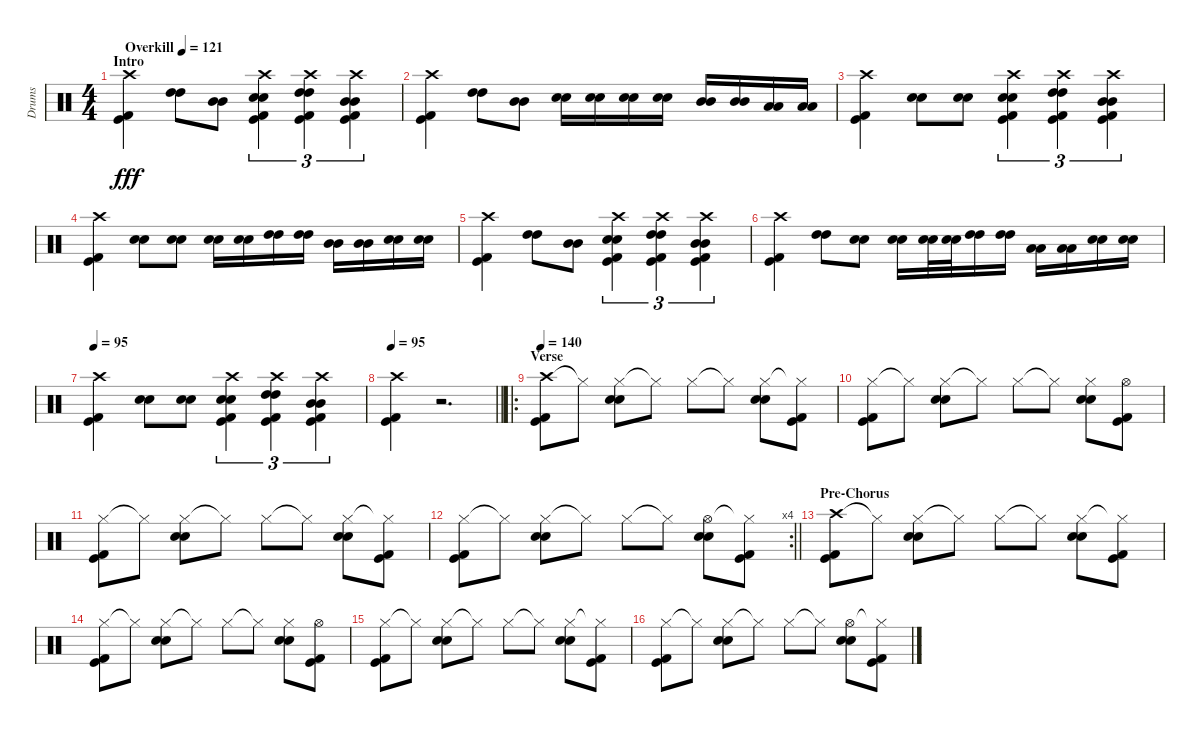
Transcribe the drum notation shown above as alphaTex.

\track ("Drums" "Drums") {instrument percussion}
\staff {score}
\articulation defaults
\ts (4 4)
\section ("" "Intro")
\tempo (121 "Overkill")
\clef neutral
\ks c
("Crash high (hit)" "Kick (hit)" "Kick (hit) 2").4{dy fff} ("High Tom (hit)" "High Tom (hit)").8 ("Mid Tom (hit)" "Mid Tom (hit)").8 ("Crash high (hit)" "Electric Snare (hit)" "Electric Snare (hit)" "Kick (hit)" "Kick (hit) 2").4{tu (3 2)} ("Crash high (hit)" "High Tom (hit)" "High Tom (hit)" "Kick (hit)" "Kick (hit) 2").4{tu (3 2)} ("Crash high (hit)" "Mid Tom (hit)" "Mid Tom (hit)" "Kick (hit)" "Kick (hit) 2").4{tu (3 2)} |
("Crash high (hit)" "Kick (hit)" "Kick (hit) 2").4 ("High Tom (hit)" "High Tom (hit)").8 ("Mid Tom (hit)" "Mid Tom (hit)").8 ("Electric Snare (hit)" "Electric Snare (hit)").16 ("Electric Snare (hit)" "Electric Snare (hit)").16 ("Electric Snare (hit)" "Electric Snare (hit)").16 ("Electric Snare (hit)" "Electric Snare (hit)").16 ("Mid Tom (hit)" "Mid Tom (hit)").16 ("Mid Tom (hit)" "Mid Tom (hit)").16 ("Low Tom (hit)" "Low Tom (hit)").16 ("Low Tom (hit)" "Low Tom (hit)").16 |
("Crash high (hit)" "Kick (hit)" "Kick (hit) 2").4 ("Electric Snare (hit)" "Electric Snare (hit)").8{bd 480} ("Electric Snare (hit)" "Electric Snare (hit)").8{bu 480} ("Crash high (hit)" "Electric Snare (hit)" "Electric Snare (hit)" "Kick (hit)" "Kick (hit) 2").4{tu (3 2)} ("Crash high (hit)" "High Tom (hit)" "High Tom (hit)" "Kick (hit)" "Kick (hit) 2").4{tu (3 2)} ("Crash high (hit)" "Mid Tom (hit)" "Mid Tom (hit)" "Kick (hit)" "Kick (hit) 2").4{tu (3 2)} |
("Crash high (hit)" "Kick (hit)" "Kick (hit) 2").4 ("Electric Snare (hit)" "Electric Snare (hit)").8 ("Electric Snare (hit)" "Electric Snare (hit)").8 ("Electric Snare (hit)" "Electric Snare (hit)").16 ("Electric Snare (hit)" "Electric Snare (hit)").16 ("High Tom (hit)" "High Tom (hit)").16 ("High Tom (hit)" "High Tom (hit)").16 ("Mid Tom (hit)" "Mid Tom (hit)").16 ("Mid Tom (hit)" "Mid Tom (hit)").16 ("Electric Snare (hit)" "Electric Snare (hit)").16 ("Electric Snare (hit)" "Electric Snare (hit)").16 |
("Crash high (hit)" "Kick (hit)" "Kick (hit) 2").4 ("High Tom (hit)" "High Tom (hit)").8{bd 480} ("Mid Tom (hit)" "Mid Tom (hit)").8{bu 480} ("Crash high (hit)" "Electric Snare (hit)" "Electric Snare (hit)" "Kick (hit)" "Kick (hit) 2").4{tu (3 2)} ("Crash high (hit)" "High Tom (hit)" "High Tom (hit)" "Kick (hit)" "Kick (hit) 2").4{tu (3 2)} ("Crash high (hit)" "Mid Tom (hit)" "Mid Tom (hit)" "Kick (hit)" "Kick (hit) 2").4{tu (3 2)} |
("Crash high (hit)" "Kick (hit)" "Kick (hit) 2").4 ("High Tom (hit)" "High Tom (hit)").8 ("Electric Snare (hit)" "Electric Snare (hit)").8 ("Electric Snare (hit)" "Electric Snare (hit)").16 ("Electric Snare (hit)" "Electric Snare (hit)").32 ("Electric Snare (hit)" "Electric Snare (hit)").32 ("High Tom (hit)" "High Tom (hit)").16 ("High Tom (hit)" "High Tom (hit)").16 ("Low Tom (hit)" "Low Tom (hit)").16 ("Low Tom (hit)" "Low Tom (hit)").16 ("Electric Snare (hit)" "Electric Snare (hit)").16 ("Electric Snare (hit)" "Electric Snare (hit)").16 |
\tempo 95
("Crash high (hit)" "Kick (hit)" "Kick (hit) 2").4 ("Electric Snare (hit)" "Electric Snare (hit)").8{bd 480} ("Electric Snare (hit)" "Electric Snare (hit)").8{bu 480} ("Crash high (hit)" "Electric Snare (hit)" "Electric Snare (hit)" "Kick (hit)" "Kick (hit) 2").4{tu (3 2)} ("Crash high (hit)" "High Tom (hit)" "High Tom (hit)" "Kick (hit)" "Kick (hit) 2").4{tu (3 2)} ("Crash high (hit)" "Mid Tom (hit)" "Mid Tom (hit)" "Kick (hit)" "Kick (hit) 2").4{tu (3 2)} |
\tempo 95
\barLineRight lightlight
("Crash high (hit)" "Kick (hit)" "Kick (hit) 2").4 r.2{d} |
\ro
\section ("" "Verse")
\tempo 140
("Crash high (hit)" "Kick (hit)" "Kick (hit) 2").8 "Hi-Hat (closed)"{t}.8 ("Hi-Hat (closed)" "Electric Snare (hit)" "Electric Snare (hit)").8 "Hi-Hat (closed)"{t}.8 "Hi-Hat (closed)".8 "Hi-Hat (closed)"{t}.8 ("Hi-Hat (closed)" "Electric Snare (hit)" "Electric Snare (hit)").8 ("Hi-Hat (closed)"{t} "Kick (hit)" "Kick (hit) 2").8 |
("Hi-Hat (closed)" "Kick (hit)" "Kick (hit) 2").8 "Hi-Hat (closed)"{t}.8 ("Hi-Hat (closed)" "Electric Snare (hit)" "Electric Snare (hit)").8 "Hi-Hat (closed)"{t}.8 "Hi-Hat (closed)".8 "Hi-Hat (closed)"{t}.8 ("Hi-Hat (closed)" "Electric Snare (hit)" "Electric Snare (hit)").8 ("Hi-Hat (open)" "Kick (hit)" "Kick (hit) 2").8 |
("Hi-Hat (closed)" "Kick (hit)" "Kick (hit) 2").8 "Hi-Hat (closed)"{t}.8 ("Hi-Hat (closed)" "Electric Snare (hit)" "Electric Snare (hit)").8 "Hi-Hat (closed)"{t}.8 "Hi-Hat (closed)".8 "Hi-Hat (closed)"{t}.8 ("Hi-Hat (closed)" "Electric Snare (hit)" "Electric Snare (hit)").8 ("Hi-Hat (closed)"{t} "Kick (hit)" "Kick (hit) 2").8 |
\rc 4
\barLineRight lightlight
("Hi-Hat (closed)" "Kick (hit)" "Kick (hit) 2").8 "Hi-Hat (closed)"{t}.8 ("Hi-Hat (closed)" "Electric Snare (hit)" "Electric Snare (hit)").8 "Hi-Hat (closed)"{t}.8 "Hi-Hat (closed)".8 "Hi-Hat (closed)"{t}.8 ("Hi-Hat (open)" "Electric Snare (hit)" "Electric Snare (hit)").8 ("Hi-Hat (closed)"{t} "Kick (hit)" "Kick (hit) 2").8 |
\section ("" "Pre-Chorus")
("Crash high (hit)" "Kick (hit)" "Kick (hit) 2").8 "Hi-Hat (closed)"{t}.8 ("Hi-Hat (closed)" "Electric Snare (hit)" "Electric Snare (hit)").8 "Hi-Hat (closed)"{t}.8 "Hi-Hat (closed)".8 "Hi-Hat (closed)"{t}.8 ("Hi-Hat (closed)" "Electric Snare (hit)" "Electric Snare (hit)").8 ("Hi-Hat (closed)"{t} "Kick (hit)" "Kick (hit) 2").8 |
("Hi-Hat (closed)" "Kick (hit)" "Kick (hit) 2").8 "Hi-Hat (closed)"{t}.8 ("Hi-Hat (closed)" "Electric Snare (hit)" "Electric Snare (hit)").8 "Hi-Hat (closed)"{t}.8 "Hi-Hat (closed)".8 "Hi-Hat (closed)"{t}.8 ("Hi-Hat (closed)" "Electric Snare (hit)" "Electric Snare (hit)").8 ("Hi-Hat (open)" "Kick (hit)" "Kick (hit) 2").8 |
("Hi-Hat (closed)" "Kick (hit)" "Kick (hit) 2").8 "Hi-Hat (closed)"{t}.8 ("Hi-Hat (closed)" "Electric Snare (hit)" "Electric Snare (hit)").8 "Hi-Hat (closed)"{t}.8 "Hi-Hat (closed)".8 "Hi-Hat (closed)"{t}.8 ("Hi-Hat (closed)" "Electric Snare (hit)" "Electric Snare (hit)").8 ("Hi-Hat (closed)"{t} "Kick (hit)" "Kick (hit) 2").8 |
("Hi-Hat (closed)" "Kick (hit)" "Kick (hit) 2").8 "Hi-Hat (closed)"{t}.8 ("Hi-Hat (closed)" "Electric Snare (hit)" "Electric Snare (hit)").8 "Hi-Hat (closed)"{t}.8 "Hi-Hat (closed)".8 "Hi-Hat (closed)"{t}.8 ("Hi-Hat (open)" "Electric Snare (hit)" "Electric Snare (hit)").8 ("Hi-Hat (closed)"{t} "Kick (hit)" "Kick (hit) 2").8
